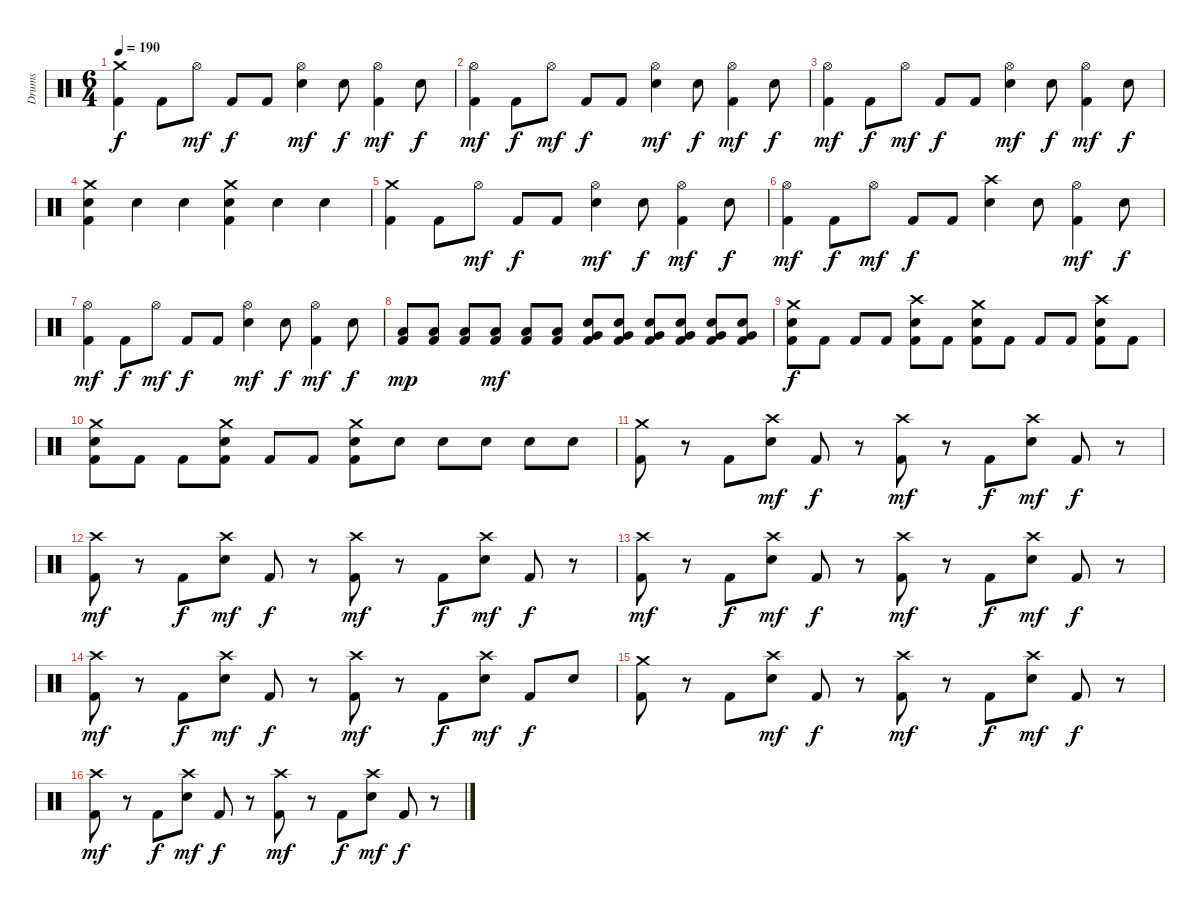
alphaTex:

\track ("Drums" "Drums") {instrument percussion}
\staff {score}
\articulation defaults
\ts (6 4)
\tempo 190
\clef neutral
\ks c
("Crash medium (hit)" "Kick (hit) 2").4{dy f} "Kick (hit) 2".8 "Hi-Hat (open)".8{dy mf} "Kick (hit) 2".8{dy f} "Kick (hit) 2".8 ("Hi-Hat (open)" "Snare (hit) 2").4{dy mf} "Snare (hit) 2".8{dy f} ("Hi-Hat (open)" "Kick (hit) 2").4{dy mf} "Snare (hit) 2".8{dy f} |
("Hi-Hat (open)" "Kick (hit) 2").4{dy mf} "Kick (hit) 2".8{dy f} "Hi-Hat (open)".8{dy mf} "Kick (hit) 2".8{dy f} "Kick (hit) 2".8 ("Hi-Hat (open)" "Snare (hit) 2").4{dy mf} "Snare (hit) 2".8{dy f} ("Hi-Hat (open)" "Kick (hit) 2").4{dy mf} "Snare (hit) 2".8{dy f} |
("Hi-Hat (open)" "Kick (hit) 2").4{dy mf} "Kick (hit) 2".8{dy f} "Hi-Hat (open)".8{dy mf} "Kick (hit) 2".8{dy f} "Kick (hit) 2".8 ("Hi-Hat (open)" "Snare (hit) 2").4{dy mf} "Snare (hit) 2".8{dy f} ("Hi-Hat (open)" "Kick (hit) 2").4{dy mf} "Snare (hit) 2".8{dy f} |
("Crash medium (hit)" "Snare (hit) 2" "Kick (hit) 2").4 "Snare (hit) 2".4 "Snare (hit) 2".4 ("Crash medium (hit)" "Snare (hit) 2" "Kick (hit) 2").4 "Snare (hit) 2".4 "Snare (hit) 2".4 |
("Crash medium (hit)" "Kick (hit) 2").4 "Kick (hit) 2".8 "Hi-Hat (open)".8{dy mf} "Kick (hit) 2".8{dy f} "Kick (hit) 2".8 ("Hi-Hat (open)" "Snare (hit) 2").4{dy mf} "Snare (hit) 2".8{dy f} ("Hi-Hat (open)" "Kick (hit) 2").4{dy mf} "Snare (hit) 2".8{dy f} |
("Hi-Hat (open)" "Kick (hit) 2").4{dy mf} "Kick (hit) 2".8{dy f} "Hi-Hat (open)".8{dy mf} "Kick (hit) 2".8{dy f} "Kick (hit) 2".8 ("Crash high (hit)" "Snare (hit) 2").4 "Snare (hit) 2".8 ("Hi-Hat (open)" "Kick (hit) 2").4{dy mf} "Snare (hit) 2".8{dy f} |
("Hi-Hat (open)" "Kick (hit) 2").4{dy mf} "Kick (hit) 2".8{dy f} "Hi-Hat (open)".8{dy mf} "Kick (hit) 2".8{dy f} "Kick (hit) 2".8 ("Hi-Hat (open)" "Snare (hit) 2").4{dy mf} "Snare (hit) 2".8{dy f} ("Hi-Hat (open)" "Kick (hit) 2").4{dy mf} "Snare (hit) 2".8{dy f} |
("Low Floor Tom (hit)" "Kick (hit) 2").8{dy mp} ("Low Floor Tom (hit)" "Kick (hit) 2").8 ("Low Floor Tom (hit)" "Kick (hit) 2").8 ("Low Floor Tom (hit)" "Kick (hit) 2").8{dy mf} ("Low Floor Tom (hit)" "Kick (hit) 2").8 ("Low Floor Tom (hit)" "Kick (hit) 2").8 ("Very Low Tom (hit)" "Snare (hit) 2" "Kick (hit) 2").8 ("Very Low Tom (hit)" "Snare (hit) 2" "Kick (hit) 2").8 ("Very Low Tom (hit)" "Snare (hit) 2" "Kick (hit) 2").8 ("Very Low Tom (hit)" "Snare (hit) 2" "Kick (hit) 2").8 ("Very Low Tom (hit)" "Snare (hit) 2" "Kick (hit) 2").8 ("Very Low Tom (hit)" "Snare (hit) 2" "Kick (hit) 2").8 |
("Crash medium (hit)" "Snare (hit) 2" "Kick (hit) 2").8{dy f} "Kick (hit) 2".8 "Kick (hit) 2".8 "Kick (hit) 2".8 ("Crash high (hit)" "Snare (hit) 2" "Kick (hit) 2").8 "Kick (hit) 2".8 ("Crash medium (hit)" "Snare (hit) 2" "Kick (hit) 2").8 "Kick (hit) 2".8 "Kick (hit) 2".8 "Kick (hit) 2".8 ("Crash high (hit)" "Snare (hit) 2" "Kick (hit) 2").8 "Kick (hit) 2".8 |
("Crash medium (hit)" "Snare (hit) 2" "Kick (hit) 2").8 "Kick (hit) 2".8 "Kick (hit) 2".8 ("Crash medium (hit)" "Snare (hit) 2" "Kick (hit) 2").8 "Kick (hit) 2".8 "Kick (hit) 2".8 ("Crash medium (hit)" "Snare (hit) 2" "Kick (hit) 2").8 "Snare (hit) 2".8 "Snare (hit) 2".8 "Snare (hit) 2".8 "Snare (hit) 2".8 "Snare (hit) 2".8 |
("Crash medium (hit)" "Kick (hit) 2").8 r.8 "Kick (hit) 2".8 ("Crash high (hit)" "Snare (hit) 2").8{dy mf} "Kick (hit) 2".8{dy f} r.8 ("Crash high (hit)" "Kick (hit) 2").8{dy mf} r.8 "Kick (hit) 2".8{dy f} ("Crash high (hit)" "Snare (hit) 2").8{dy mf} "Kick (hit) 2".8{dy f} r.8 |
("Crash high (hit)" "Kick (hit) 2").8{dy mf} r.8 "Kick (hit) 2".8{dy f} ("Crash high (hit)" "Snare (hit) 2").8{dy mf} "Kick (hit) 2".8{dy f} r.8 ("Crash high (hit)" "Kick (hit) 2").8{dy mf} r.8 "Kick (hit) 2".8{dy f} ("Crash high (hit)" "Snare (hit) 2").8{dy mf} "Kick (hit) 2".8{dy f} r.8 |
("Crash high (hit)" "Kick (hit) 2").8{dy mf} r.8 "Kick (hit) 2".8{dy f} ("Crash high (hit)" "Snare (hit) 2").8{dy mf} "Kick (hit) 2".8{dy f} r.8 ("Crash high (hit)" "Kick (hit) 2").8{dy mf} r.8 "Kick (hit) 2".8{dy f} ("Crash high (hit)" "Snare (hit) 2").8{dy mf} "Kick (hit) 2".8{dy f} r.8 |
("Crash high (hit)" "Kick (hit) 2").8{dy mf} r.8 "Kick (hit) 2".8{dy f} ("Crash high (hit)" "Snare (hit) 2").8{dy mf} "Kick (hit) 2".8{dy f} r.8 ("Crash high (hit)" "Kick (hit) 2").8{dy mf} r.8 "Kick (hit) 2".8{dy f} ("Crash high (hit)" "Snare (hit) 2").8{dy mf} "Kick (hit) 2".8{dy f} "Snare (hit) 2".8 |
("Crash medium (hit)" "Kick (hit) 2").8 r.8 "Kick (hit) 2".8 ("Crash high (hit)" "Snare (hit) 2").8{dy mf} "Kick (hit) 2".8{dy f} r.8 ("Crash high (hit)" "Kick (hit) 2").8{dy mf} r.8 "Kick (hit) 2".8{dy f} ("Crash high (hit)" "Snare (hit) 2").8{dy mf} "Kick (hit) 2".8{dy f} r.8 |
("Crash high (hit)" "Kick (hit) 2").8{dy mf} r.8 "Kick (hit) 2".8{dy f} ("Crash high (hit)" "Snare (hit) 2").8{dy mf} "Kick (hit) 2".8{dy f} r.8 ("Crash high (hit)" "Kick (hit) 2").8{dy mf} r.8 "Kick (hit) 2".8{dy f} ("Crash high (hit)" "Snare (hit) 2").8{dy mf} "Kick (hit) 2".8{dy f} r.8
